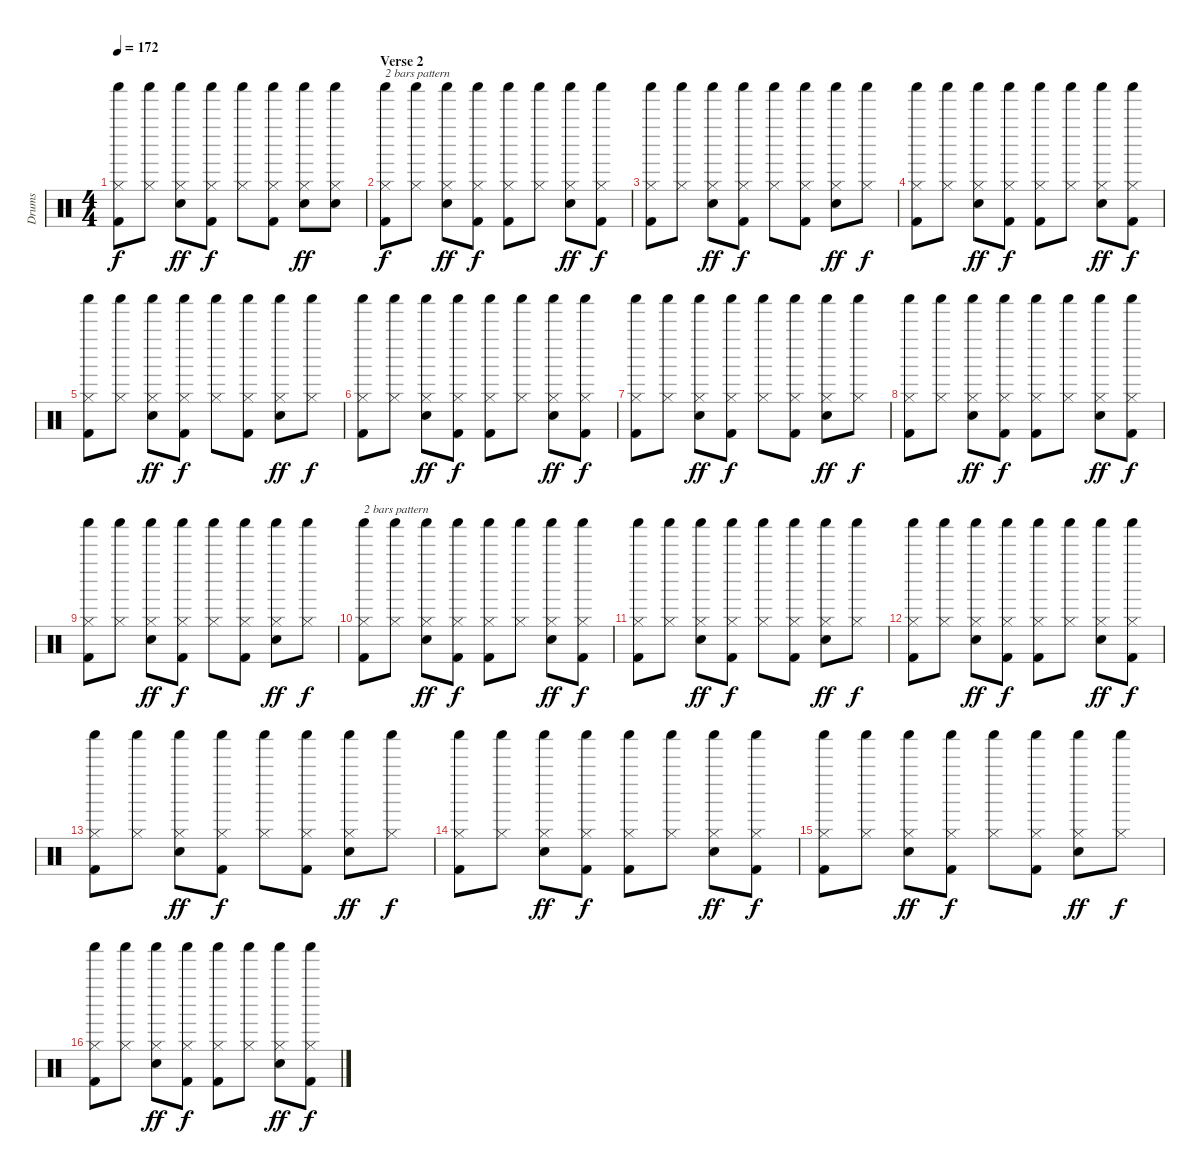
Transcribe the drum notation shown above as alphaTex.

\track ("Drums" "Drums") {instrument percussion}
\staff {score}
\articulation defaults
\ts (4 4)
\tempo 172
\clef neutral
\ks c
("Hi-Hat (closed)" "Shaker (hit)" "Kick (hit) 2").8{dy f} ("Hi-Hat (closed)" "Shaker (hit)").8 ("Hi-Hat (closed)" "Shaker (hit)" "Electric Snare (hit)").8{dy ff} ("Hi-Hat (closed)" "Shaker (hit)" "Kick (hit) 2").8{dy f} ("Hi-Hat (closed)" "Shaker (hit)").8 ("Hi-Hat (closed)" "Shaker (hit)" "Kick (hit) 2").8 ("Hi-Hat (closed)" "Shaker (hit)" "Electric Snare (hit)").8{dy ff} ("Hi-Hat (closed)" "Shaker (hit)" "Electric Snare (hit)").8 |
\section ("" "Verse 2")
("Hi-Hat (closed)" "Shaker (hit)" "Kick (hit) 2").8{txt "2 bars pattern" dy f} ("Hi-Hat (closed)" "Shaker (hit)").8 ("Hi-Hat (closed)" "Shaker (hit)" "Electric Snare (hit)").8{dy ff} ("Hi-Hat (closed)" "Shaker (hit)" "Kick (hit) 2").8{dy f} ("Hi-Hat (closed)" "Shaker (hit)" "Kick (hit) 2").8 ("Hi-Hat (closed)" "Shaker (hit)").8 ("Hi-Hat (closed)" "Shaker (hit)" "Electric Snare (hit)").8{dy ff} ("Hi-Hat (closed)" "Shaker (hit)" "Kick (hit) 2").8{dy f} |
("Hi-Hat (closed)" "Shaker (hit)" "Kick (hit) 2").8 ("Hi-Hat (closed)" "Shaker (hit)").8 ("Hi-Hat (closed)" "Shaker (hit)" "Electric Snare (hit)").8{dy ff} ("Hi-Hat (closed)" "Shaker (hit)" "Kick (hit) 2").8{dy f} ("Hi-Hat (closed)" "Shaker (hit)").8 ("Hi-Hat (closed)" "Shaker (hit)" "Kick (hit) 2").8 ("Hi-Hat (closed)" "Shaker (hit)" "Electric Snare (hit)").8{dy ff} ("Hi-Hat (closed)" "Shaker (hit)").8{dy f} |
("Hi-Hat (closed)" "Shaker (hit)" "Kick (hit) 2").8 ("Hi-Hat (closed)" "Shaker (hit)").8 ("Hi-Hat (closed)" "Shaker (hit)" "Electric Snare (hit)").8{dy ff} ("Hi-Hat (closed)" "Shaker (hit)" "Kick (hit) 2").8{dy f} ("Hi-Hat (closed)" "Shaker (hit)" "Kick (hit) 2").8 ("Hi-Hat (closed)" "Shaker (hit)").8 ("Hi-Hat (closed)" "Shaker (hit)" "Electric Snare (hit)").8{dy ff} ("Hi-Hat (closed)" "Shaker (hit)" "Kick (hit) 2").8{dy f} |
("Hi-Hat (closed)" "Shaker (hit)" "Kick (hit) 2").8 ("Hi-Hat (closed)" "Shaker (hit)").8 ("Hi-Hat (closed)" "Shaker (hit)" "Electric Snare (hit)").8{dy ff} ("Hi-Hat (closed)" "Shaker (hit)" "Kick (hit) 2").8{dy f} ("Hi-Hat (closed)" "Shaker (hit)").8 ("Hi-Hat (closed)" "Shaker (hit)" "Kick (hit) 2").8 ("Hi-Hat (closed)" "Shaker (hit)" "Electric Snare (hit)").8{dy ff} ("Hi-Hat (closed)" "Shaker (hit)").8{dy f} |
("Hi-Hat (closed)" "Shaker (hit)" "Kick (hit) 2").8 ("Hi-Hat (closed)" "Shaker (hit)").8 ("Hi-Hat (closed)" "Shaker (hit)" "Electric Snare (hit)").8{dy ff} ("Hi-Hat (closed)" "Shaker (hit)" "Kick (hit) 2").8{dy f} ("Hi-Hat (closed)" "Shaker (hit)" "Kick (hit) 2").8 ("Hi-Hat (closed)" "Shaker (hit)").8 ("Hi-Hat (closed)" "Shaker (hit)" "Electric Snare (hit)").8{dy ff} ("Hi-Hat (closed)" "Shaker (hit)" "Kick (hit) 2").8{dy f} |
("Hi-Hat (closed)" "Shaker (hit)" "Kick (hit) 2").8 ("Hi-Hat (closed)" "Shaker (hit)").8 ("Hi-Hat (closed)" "Shaker (hit)" "Electric Snare (hit)").8{dy ff} ("Hi-Hat (closed)" "Shaker (hit)" "Kick (hit) 2").8{dy f} ("Hi-Hat (closed)" "Shaker (hit)").8 ("Hi-Hat (closed)" "Shaker (hit)" "Kick (hit) 2").8 ("Hi-Hat (closed)" "Shaker (hit)" "Electric Snare (hit)").8{dy ff} ("Hi-Hat (closed)" "Shaker (hit)").8{dy f} |
("Hi-Hat (closed)" "Shaker (hit)" "Kick (hit) 2").8 ("Hi-Hat (closed)" "Shaker (hit)").8 ("Hi-Hat (closed)" "Shaker (hit)" "Electric Snare (hit)").8{dy ff} ("Hi-Hat (closed)" "Shaker (hit)" "Kick (hit) 2").8{dy f} ("Hi-Hat (closed)" "Shaker (hit)" "Kick (hit) 2").8 ("Hi-Hat (closed)" "Shaker (hit)").8 ("Hi-Hat (closed)" "Shaker (hit)" "Electric Snare (hit)").8{dy ff} ("Hi-Hat (closed)" "Shaker (hit)" "Kick (hit) 2").8{dy f} |
("Hi-Hat (closed)" "Shaker (hit)" "Kick (hit) 2").8 ("Hi-Hat (closed)" "Shaker (hit)").8 ("Hi-Hat (closed)" "Shaker (hit)" "Electric Snare (hit)").8{dy ff} ("Hi-Hat (closed)" "Shaker (hit)" "Kick (hit) 2").8{dy f} ("Hi-Hat (closed)" "Shaker (hit)").8 ("Hi-Hat (closed)" "Shaker (hit)" "Kick (hit) 2").8 ("Hi-Hat (closed)" "Shaker (hit)" "Electric Snare (hit)").8{dy ff} ("Hi-Hat (closed)" "Shaker (hit)").8{dy f} |
("Hi-Hat (closed)" "Shaker (hit)" "Kick (hit) 2").8{txt "2 bars pattern"} ("Hi-Hat (closed)" "Shaker (hit)").8 ("Hi-Hat (closed)" "Shaker (hit)" "Electric Snare (hit)").8{dy ff} ("Hi-Hat (closed)" "Shaker (hit)" "Kick (hit) 2").8{dy f} ("Hi-Hat (closed)" "Shaker (hit)" "Kick (hit) 2").8 ("Hi-Hat (closed)" "Shaker (hit)").8 ("Hi-Hat (closed)" "Shaker (hit)" "Electric Snare (hit)").8{dy ff} ("Hi-Hat (closed)" "Shaker (hit)" "Kick (hit) 2").8{dy f} |
("Hi-Hat (closed)" "Shaker (hit)" "Kick (hit) 2").8 ("Hi-Hat (closed)" "Shaker (hit)").8 ("Hi-Hat (closed)" "Shaker (hit)" "Electric Snare (hit)").8{dy ff} ("Hi-Hat (closed)" "Shaker (hit)" "Kick (hit) 2").8{dy f} ("Hi-Hat (closed)" "Shaker (hit)").8 ("Hi-Hat (closed)" "Shaker (hit)" "Kick (hit) 2").8 ("Hi-Hat (closed)" "Shaker (hit)" "Electric Snare (hit)").8{dy ff} ("Hi-Hat (closed)" "Shaker (hit)").8{dy f} |
("Hi-Hat (closed)" "Shaker (hit)" "Kick (hit) 2").8 ("Hi-Hat (closed)" "Shaker (hit)").8 ("Hi-Hat (closed)" "Shaker (hit)" "Electric Snare (hit)").8{dy ff} ("Hi-Hat (closed)" "Shaker (hit)" "Kick (hit) 2").8{dy f} ("Hi-Hat (closed)" "Shaker (hit)" "Kick (hit) 2").8 ("Hi-Hat (closed)" "Shaker (hit)").8 ("Hi-Hat (closed)" "Shaker (hit)" "Electric Snare (hit)").8{dy ff} ("Hi-Hat (closed)" "Shaker (hit)" "Kick (hit) 2").8{dy f} |
("Hi-Hat (closed)" "Shaker (hit)" "Kick (hit) 2").8 ("Hi-Hat (closed)" "Shaker (hit)").8 ("Hi-Hat (closed)" "Shaker (hit)" "Electric Snare (hit)").8{dy ff} ("Hi-Hat (closed)" "Shaker (hit)" "Kick (hit) 2").8{dy f} ("Hi-Hat (closed)" "Shaker (hit)").8 ("Hi-Hat (closed)" "Shaker (hit)" "Kick (hit) 2").8 ("Hi-Hat (closed)" "Shaker (hit)" "Electric Snare (hit)").8{dy ff} ("Hi-Hat (closed)" "Shaker (hit)").8{dy f} |
("Hi-Hat (closed)" "Shaker (hit)" "Kick (hit) 2").8 ("Hi-Hat (closed)" "Shaker (hit)").8 ("Hi-Hat (closed)" "Shaker (hit)" "Electric Snare (hit)").8{dy ff} ("Hi-Hat (closed)" "Shaker (hit)" "Kick (hit) 2").8{dy f} ("Hi-Hat (closed)" "Shaker (hit)" "Kick (hit) 2").8 ("Hi-Hat (closed)" "Shaker (hit)").8 ("Hi-Hat (closed)" "Shaker (hit)" "Electric Snare (hit)").8{dy ff} ("Hi-Hat (closed)" "Shaker (hit)" "Kick (hit) 2").8{dy f} |
("Hi-Hat (closed)" "Shaker (hit)" "Kick (hit) 2").8 ("Hi-Hat (closed)" "Shaker (hit)").8 ("Hi-Hat (closed)" "Shaker (hit)" "Electric Snare (hit)").8{dy ff} ("Hi-Hat (closed)" "Shaker (hit)" "Kick (hit) 2").8{dy f} ("Hi-Hat (closed)" "Shaker (hit)").8 ("Hi-Hat (closed)" "Shaker (hit)" "Kick (hit) 2").8 ("Hi-Hat (closed)" "Shaker (hit)" "Electric Snare (hit)").8{dy ff} ("Hi-Hat (closed)" "Shaker (hit)").8{dy f} |
("Hi-Hat (closed)" "Shaker (hit)" "Kick (hit) 2").8 ("Hi-Hat (closed)" "Shaker (hit)").8 ("Hi-Hat (closed)" "Shaker (hit)" "Electric Snare (hit)").8{dy ff} ("Hi-Hat (closed)" "Shaker (hit)" "Kick (hit) 2").8{dy f} ("Hi-Hat (closed)" "Shaker (hit)" "Kick (hit) 2").8 ("Hi-Hat (closed)" "Shaker (hit)").8 ("Hi-Hat (closed)" "Shaker (hit)" "Electric Snare (hit)").8{dy ff} ("Hi-Hat (closed)" "Shaker (hit)" "Kick (hit) 2").8{dy f}
